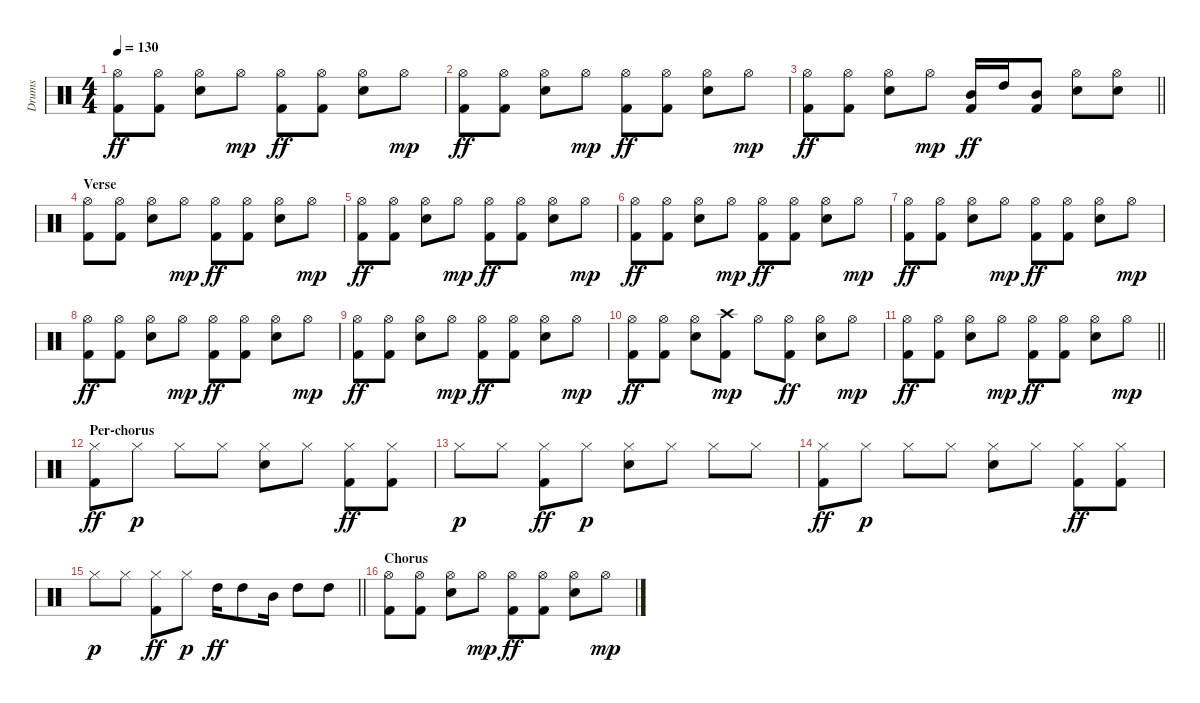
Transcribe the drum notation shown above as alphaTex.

\track ("Drums" "Drums") {instrument percussion}
\staff
\articulation defaults
\ts (4 4)
\tempo 130
\clef neutral
\ks c
("Hi-Hat (open)" "Kick (hit) 2").8{dy ff} ("Hi-Hat (open)" "Kick (hit) 2").8 ("Hi-Hat (open)" "Snare (hit) 2").8 "Hi-Hat (open)".8{dy mp} ("Hi-Hat (open)" "Kick (hit) 2").8{dy ff} ("Hi-Hat (open)" "Kick (hit) 2").8 ("Hi-Hat (open)" "Snare (hit) 2").8 "Hi-Hat (open)".8{dy mp} |
("Hi-Hat (open)" "Kick (hit) 2").8{dy ff} ("Hi-Hat (open)" "Kick (hit) 2").8 ("Hi-Hat (open)" "Snare (hit) 2").8 "Hi-Hat (open)".8{dy mp} ("Hi-Hat (open)" "Kick (hit) 2").8{dy ff} ("Hi-Hat (open)" "Kick (hit) 2").8 ("Hi-Hat (open)" "Snare (hit) 2").8 "Hi-Hat (open)".8{dy mp} |
\barLineRight lightlight
("Hi-Hat (open)" "Kick (hit) 2").8{dy ff} ("Hi-Hat (open)" "Kick (hit) 2").8 ("Hi-Hat (open)" "Snare (hit) 2").8 "Hi-Hat (open)".8{dy mp} ("Mid Tom (hit)" "Kick (hit) 2").16{dy ff} "High Tom (hit)".16 ("Mid Tom (hit)" "Kick (hit) 2").8 ("Hi-Hat (open)" "Snare (hit) 2").8 ("Hi-Hat (open)" "Snare (hit) 2").8 |
\section ("" "Verse")
("Hi-Hat (open)" "Kick (hit) 2").8 ("Hi-Hat (open)" "Kick (hit) 2").8 ("Hi-Hat (open)" "Snare (hit) 2").8 "Hi-Hat (open)".8{dy mp} ("Hi-Hat (open)" "Kick (hit) 2").8{dy ff} ("Hi-Hat (open)" "Kick (hit) 2").8 ("Hi-Hat (open)" "Snare (hit) 2").8 "Hi-Hat (open)".8{dy mp} |
("Hi-Hat (open)" "Kick (hit) 2").8{dy ff} ("Hi-Hat (open)" "Kick (hit) 2").8 ("Hi-Hat (open)" "Snare (hit) 2").8 "Hi-Hat (open)".8{dy mp} ("Hi-Hat (open)" "Kick (hit) 2").8{dy ff} ("Hi-Hat (open)" "Kick (hit) 2").8 ("Hi-Hat (open)" "Snare (hit) 2").8 "Hi-Hat (open)".8{dy mp} |
("Hi-Hat (open)" "Kick (hit) 2").8{dy ff} ("Hi-Hat (open)" "Kick (hit) 2").8 ("Hi-Hat (open)" "Snare (hit) 2").8 "Hi-Hat (open)".8{dy mp} ("Hi-Hat (open)" "Kick (hit) 2").8{dy ff} ("Hi-Hat (open)" "Kick (hit) 2").8 ("Hi-Hat (open)" "Snare (hit) 2").8 "Hi-Hat (open)".8{dy mp} |
("Hi-Hat (open)" "Kick (hit) 2").8{dy ff} ("Hi-Hat (open)" "Kick (hit) 2").8 ("Hi-Hat (open)" "Snare (hit) 2").8 "Hi-Hat (open)".8{dy mp} ("Hi-Hat (open)" "Kick (hit) 2").8{dy ff} ("Hi-Hat (open)" "Kick (hit) 2").8 ("Hi-Hat (open)" "Snare (hit) 2").8 "Hi-Hat (open)".8{dy mp} |
("Hi-Hat (open)" "Kick (hit) 2").8{dy ff} ("Hi-Hat (open)" "Kick (hit) 2").8 ("Hi-Hat (open)" "Snare (hit) 2").8 "Hi-Hat (open)".8{dy mp} ("Hi-Hat (open)" "Kick (hit) 2").8{dy ff} ("Hi-Hat (open)" "Kick (hit) 2").8 ("Hi-Hat (open)" "Snare (hit) 2").8 "Hi-Hat (open)".8{dy mp} |
("Hi-Hat (open)" "Kick (hit) 2").8{dy ff} ("Hi-Hat (open)" "Kick (hit) 2").8 ("Hi-Hat (open)" "Snare (hit) 2").8 "Hi-Hat (open)".8{dy mp} ("Hi-Hat (open)" "Kick (hit) 2").8{dy ff} ("Hi-Hat (open)" "Kick (hit) 2").8 ("Hi-Hat (open)" "Snare (hit) 2").8 "Hi-Hat (open)".8{dy mp} |
("Hi-Hat (open)" "Kick (hit) 2").8{dy ff} ("Hi-Hat (open)" "Kick (hit) 2").8 ("Hi-Hat (open)" "Snare (hit) 2").8 ("Crash high (hit)" "Kick (hit) 2").8{dy mp} "Hi-Hat (open)".8 ("Hi-Hat (open)" "Kick (hit) 2").8{dy ff} ("Hi-Hat (open)" "Snare (hit) 2").8 "Hi-Hat (open)".8{dy mp} |
\barLineRight lightlight
("Hi-Hat (open)" "Kick (hit) 2").8{dy ff} ("Hi-Hat (open)" "Kick (hit) 2").8 ("Hi-Hat (open)" "Snare (hit) 2").8 "Hi-Hat (open)".8{dy mp} ("Hi-Hat (open)" "Kick (hit) 2").8{dy ff} ("Hi-Hat (open)" "Kick (hit) 2").8 ("Hi-Hat (open)" "Snare (hit) 2").8 "Hi-Hat (open)".8{dy mp} |
\section ("" "Per-chorus")
("Hi-Hat (closed)" "Kick (hit) 2").8{dy ff} "Hi-Hat (closed)".8{dy p} "Hi-Hat (closed)".8 "Hi-Hat (closed)".8 ("Hi-Hat (closed)" "Snare (hit) 2").8 "Hi-Hat (closed)".8 ("Hi-Hat (closed)" "Kick (hit) 2").8{dy ff} ("Hi-Hat (closed)" "Kick (hit) 2").8 |
"Hi-Hat (closed)".8{dy p} "Hi-Hat (closed)".8 ("Hi-Hat (closed)" "Kick (hit) 2").8{dy ff} "Hi-Hat (closed)".8{dy p} ("Hi-Hat (closed)" "Snare (hit) 2").8 "Hi-Hat (closed)".8 "Hi-Hat (closed)".8 "Hi-Hat (closed)".8 |
("Hi-Hat (closed)" "Kick (hit) 2").8{dy ff} "Hi-Hat (closed)".8{dy p} "Hi-Hat (closed)".8 "Hi-Hat (closed)".8 ("Hi-Hat (closed)" "Snare (hit) 2").8 "Hi-Hat (closed)".8 ("Hi-Hat (closed)" "Kick (hit) 2").8{dy ff} ("Hi-Hat (closed)" "Kick (hit) 2").8 |
\barLineRight lightlight "Hi-Hat (closed)".8{dy p} "Hi-Hat (closed)".8
("Hi-Hat (closed)" "Kick (hit) 2").8{dy ff} "Hi-Hat (closed)".8{dy p} "High Tom (hit)".16{dy ff} "High Tom (hit)".8 "Mid Tom (hit)".16 "High Tom (hit)".8 "High Tom (hit)".8 |
\section ("" "Chorus")
("Hi-Hat (open)" "Kick (hit) 2").8 ("Hi-Hat (open)" "Kick (hit) 2").8 ("Hi-Hat (open)" "Snare (hit) 2").8 "Hi-Hat (open)".8{dy mp} ("Hi-Hat (open)" "Kick (hit) 2").8{dy ff} ("Hi-Hat (open)" "Kick (hit) 2").8 ("Hi-Hat (open)" "Snare (hit) 2").8 "Hi-Hat (open)".8{dy mp}
